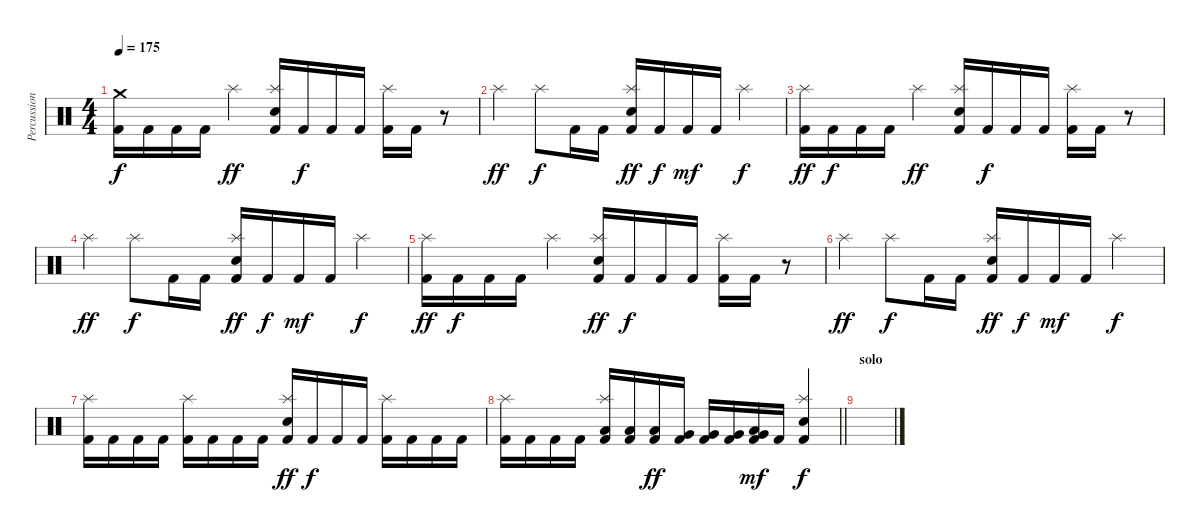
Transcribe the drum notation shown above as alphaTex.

\track ("Percussion" "Percussion") {instrument percussion}
\staff {score}
\articulation defaults
\ts (4 4)
\tempo 175
\clef neutral
\ks c
("Crash medium (hit)" "Kick (hit) 2").16{dy f} "Kick (hit) 2".16 "Kick (hit) 2".16 "Kick (hit) 2".16 "Splash (hit)".4{dy ff} ("Electric Snare (hit)" "Splash (hit)" "Kick (hit) 2").16 "Kick (hit) 2".16{dy f} "Kick (hit) 2".16 "Kick (hit) 2".16 ("Splash (hit)" "Kick (hit) 2").16 "Kick (hit) 2".16 r.8 |
"Splash (hit)".4{dy ff} "Splash (hit)".8{dy f} "Kick (hit) 2".16 "Kick (hit) 2".16 ("Electric Snare (hit)" "Splash (hit)" "Kick (hit) 2").16{dy ff} "Kick (hit) 2".16{dy f} "Kick (hit) 2".16{dy mf} "Kick (hit) 2".16 "Splash (hit)".4{dy f} |
("Splash (hit)" "Kick (hit) 2").16{dy ff} "Kick (hit) 2".16{dy f} "Kick (hit) 2".16 "Kick (hit) 2".16 "Splash (hit)".4{dy ff} ("Electric Snare (hit)" "Splash (hit)" "Kick (hit) 2").16 "Kick (hit) 2".16{dy f} "Kick (hit) 2".16 "Kick (hit) 2".16 ("Splash (hit)" "Kick (hit) 2").16 "Kick (hit) 2".16 r.8 |
"Splash (hit)".4{dy ff} "Splash (hit)".8{dy f} "Kick (hit) 2".16 "Kick (hit) 2".16 ("Electric Snare (hit)" "Splash (hit)" "Kick (hit) 2").16{dy ff} "Kick (hit) 2".16{dy f} "Kick (hit) 2".16{dy mf} "Kick (hit) 2".16 "Splash (hit)".4{dy f} |
("Splash (hit)" "Kick (hit) 2").16{dy ff} "Kick (hit) 2".16{dy f} "Kick (hit) 2".16 "Kick (hit) 2".16 "Splash (hit)".4 ("Electric Snare (hit)" "Splash (hit)" "Kick (hit) 2").16{dy ff} "Kick (hit) 2".16{dy f} "Kick (hit) 2".16 "Kick (hit) 2".16 ("Splash (hit)" "Kick (hit) 2").16 "Kick (hit) 2".16 r.8 |
"Splash (hit)".4{dy ff} "Splash (hit)".8{dy f} "Kick (hit) 2".16 "Kick (hit) 2".16 ("Electric Snare (hit)" "Splash (hit)" "Kick (hit) 2").16{dy ff} "Kick (hit) 2".16{dy f} "Kick (hit) 2".16{dy mf} "Kick (hit) 2".16 "Splash (hit)".4{dy f} |
("Splash (hit)" "Kick (hit) 2").16 "Kick (hit) 2".16 "Kick (hit) 2".16 "Kick (hit) 2".16 ("Splash (hit)" "Kick (hit) 2").16 "Kick (hit) 2".16 "Kick (hit) 2".16 "Kick (hit) 2".16 ("Electric Snare (hit)" "Splash (hit)" "Kick (hit) 2").16{dy ff} "Kick (hit) 2".16{dy f} "Kick (hit) 2".16 "Kick (hit) 2".16 ("Splash (hit)" "Kick (hit) 2").16 "Kick (hit) 2".16 "Kick (hit) 2".16 "Kick (hit) 2".16 |
\barLineRight lightlight
("Splash (hit)" "Kick (hit) 2").16 "Kick (hit) 2".16 "Kick (hit) 2".16 "Kick (hit) 2".16 ("Low Tom (hit)" "Splash (hit)" "Kick (hit) 2").16 ("Low Tom (hit)" "Kick (hit) 2").16 ("Low Tom (hit)" "Kick (hit) 2").16{dy ff} ("Very Low Tom (hit)" "Kick (hit) 2").16 ("Very Low Tom (hit)" "Kick (hit) 2").16 ("Very Low Tom (hit)" "Kick (hit) 2").16 ("Very Low Tom (hit)" "Low Floor Tom (hit)" "Kick (hit) 2").16{dy mf} "Kick (hit) 2".16 ("Electric Snare (hit)" "Splash (hit)" "Kick (hit) 2").4{dy f} |
\section ("" "solo")
